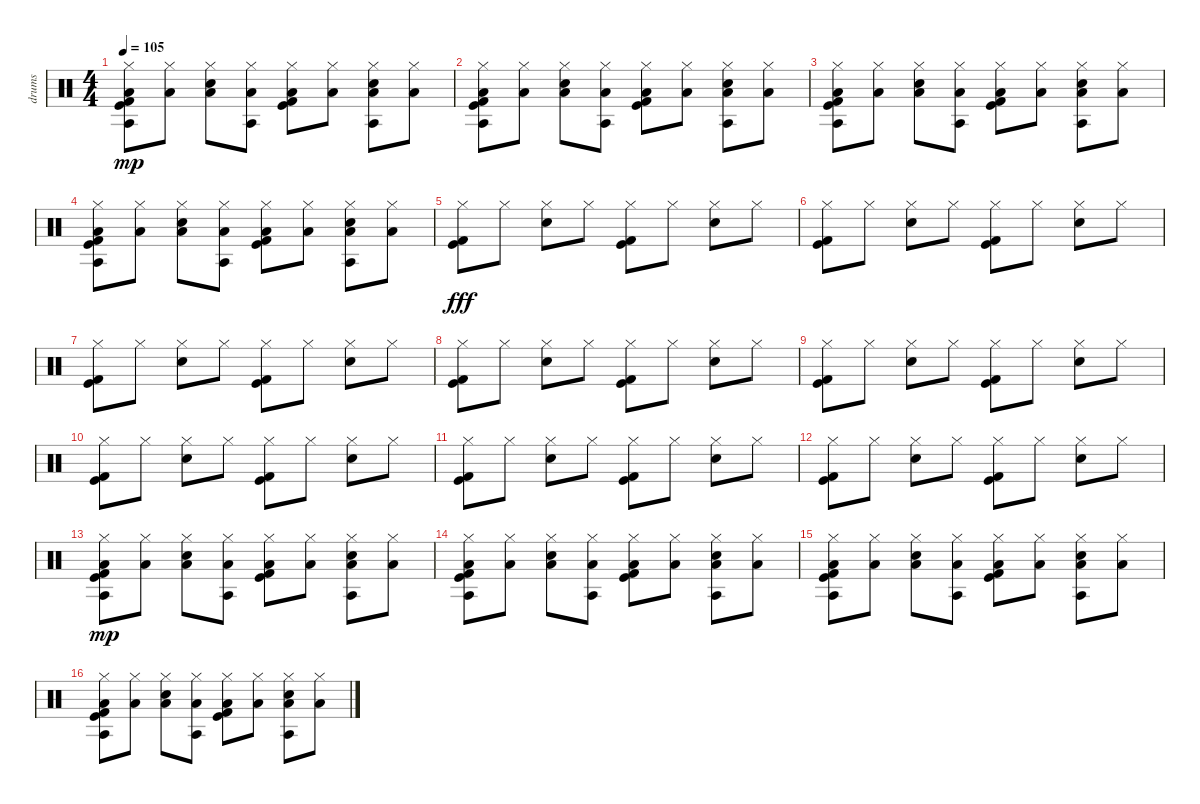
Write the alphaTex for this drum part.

\track ("drums" "drums") {instrument percussion}
\staff {score}
\articulation defaults
\ts (4 4)
\tempo 105
\clef neutral
\ks c
("Kick (hit)" "Kick (hit) 2" "Hi-Hat (closed)" "Agogo tow (hit)" "Low Floor Tom (hit)").8{dy mp} ("Hi-Hat (closed)" "Low Floor Tom (hit)").8 ("Hi-Hat (closed)" "Electric Snare (hit)" "Low Floor Tom (hit)").8 ("Hi-Hat (closed)" "Agogo tow (hit)" "Low Floor Tom (hit)").8 ("Kick (hit)" "Kick (hit) 2" "Hi-Hat (closed)" "Low Floor Tom (hit)").8 ("Hi-Hat (closed)" "Low Floor Tom (hit)").8 ("Hi-Hat (closed)" "Agogo tow (hit)" "Electric Snare (hit)" "Low Floor Tom (hit)").8 ("Hi-Hat (closed)" "Low Floor Tom (hit)").8 |
("Kick (hit)" "Kick (hit) 2" "Hi-Hat (closed)" "Agogo tow (hit)" "Low Floor Tom (hit)").8 ("Hi-Hat (closed)" "Low Floor Tom (hit)").8 ("Hi-Hat (closed)" "Electric Snare (hit)" "Low Floor Tom (hit)").8 ("Hi-Hat (closed)" "Agogo tow (hit)" "Low Floor Tom (hit)").8 ("Kick (hit)" "Kick (hit) 2" "Hi-Hat (closed)" "Low Floor Tom (hit)").8 ("Hi-Hat (closed)" "Low Floor Tom (hit)").8 ("Hi-Hat (closed)" "Agogo tow (hit)" "Electric Snare (hit)" "Low Floor Tom (hit)").8 ("Hi-Hat (closed)" "Low Floor Tom (hit)").8 |
("Kick (hit)" "Kick (hit) 2" "Hi-Hat (closed)" "Agogo tow (hit)" "Low Floor Tom (hit)").8 ("Hi-Hat (closed)" "Low Floor Tom (hit)").8 ("Hi-Hat (closed)" "Electric Snare (hit)" "Low Floor Tom (hit)").8 ("Hi-Hat (closed)" "Agogo tow (hit)" "Low Floor Tom (hit)").8 ("Kick (hit)" "Kick (hit) 2" "Hi-Hat (closed)" "Low Floor Tom (hit)").8 ("Hi-Hat (closed)" "Low Floor Tom (hit)").8 ("Hi-Hat (closed)" "Agogo tow (hit)" "Electric Snare (hit)" "Low Floor Tom (hit)").8 ("Hi-Hat (closed)" "Low Floor Tom (hit)").8 |
("Kick (hit)" "Kick (hit) 2" "Hi-Hat (closed)" "Agogo tow (hit)" "Low Floor Tom (hit)").8 ("Hi-Hat (closed)" "Low Floor Tom (hit)").8 ("Hi-Hat (closed)" "Electric Snare (hit)" "Low Floor Tom (hit)").8 ("Hi-Hat (closed)" "Agogo tow (hit)" "Low Floor Tom (hit)").8 ("Kick (hit)" "Kick (hit) 2" "Hi-Hat (closed)" "Low Floor Tom (hit)").8 ("Hi-Hat (closed)" "Low Floor Tom (hit)").8 ("Hi-Hat (closed)" "Agogo tow (hit)" "Electric Snare (hit)" "Low Floor Tom (hit)").8 ("Hi-Hat (closed)" "Low Floor Tom (hit)").8 |
("Kick (hit)" "Kick (hit) 2" "Hi-Hat (closed)").8{dy fff} "Hi-Hat (closed)".8 ("Hi-Hat (closed)" "Electric Snare (hit)").8 "Hi-Hat (closed)".8 ("Kick (hit)" "Kick (hit) 2" "Hi-Hat (closed)").8 "Hi-Hat (closed)".8 ("Hi-Hat (closed)" "Electric Snare (hit)").8 "Hi-Hat (closed)".8 |
("Kick (hit)" "Kick (hit) 2" "Hi-Hat (closed)").8 "Hi-Hat (closed)".8 ("Hi-Hat (closed)" "Electric Snare (hit)").8 "Hi-Hat (closed)".8 ("Kick (hit)" "Kick (hit) 2" "Hi-Hat (closed)").8 "Hi-Hat (closed)".8 ("Hi-Hat (closed)" "Electric Snare (hit)").8 "Hi-Hat (closed)".8 |
("Kick (hit)" "Kick (hit) 2" "Hi-Hat (closed)").8 "Hi-Hat (closed)".8 ("Hi-Hat (closed)" "Electric Snare (hit)").8 "Hi-Hat (closed)".8 ("Kick (hit)" "Kick (hit) 2" "Hi-Hat (closed)").8 "Hi-Hat (closed)".8 ("Hi-Hat (closed)" "Electric Snare (hit)").8 "Hi-Hat (closed)".8 |
("Kick (hit)" "Kick (hit) 2" "Hi-Hat (closed)").8 "Hi-Hat (closed)".8 ("Hi-Hat (closed)" "Electric Snare (hit)").8 "Hi-Hat (closed)".8 ("Kick (hit)" "Kick (hit) 2" "Hi-Hat (closed)").8 "Hi-Hat (closed)".8 ("Hi-Hat (closed)" "Electric Snare (hit)").8 "Hi-Hat (closed)".8 |
("Kick (hit)" "Kick (hit) 2" "Hi-Hat (closed)").8 "Hi-Hat (closed)".8 ("Hi-Hat (closed)" "Electric Snare (hit)").8 "Hi-Hat (closed)".8 ("Kick (hit)" "Kick (hit) 2" "Hi-Hat (closed)").8 "Hi-Hat (closed)".8 ("Hi-Hat (closed)" "Electric Snare (hit)").8 "Hi-Hat (closed)".8 |
("Kick (hit)" "Kick (hit) 2" "Hi-Hat (closed)").8 "Hi-Hat (closed)".8 ("Hi-Hat (closed)" "Electric Snare (hit)").8 "Hi-Hat (closed)".8 ("Kick (hit)" "Kick (hit) 2" "Hi-Hat (closed)").8 "Hi-Hat (closed)".8 ("Hi-Hat (closed)" "Electric Snare (hit)").8 "Hi-Hat (closed)".8 |
("Kick (hit)" "Kick (hit) 2" "Hi-Hat (closed)").8 "Hi-Hat (closed)".8 ("Hi-Hat (closed)" "Electric Snare (hit)").8 "Hi-Hat (closed)".8 ("Kick (hit)" "Kick (hit) 2" "Hi-Hat (closed)").8 "Hi-Hat (closed)".8 ("Hi-Hat (closed)" "Electric Snare (hit)").8 "Hi-Hat (closed)".8 |
("Kick (hit)" "Kick (hit) 2" "Hi-Hat (closed)").8 "Hi-Hat (closed)".8 ("Hi-Hat (closed)" "Electric Snare (hit)").8 "Hi-Hat (closed)".8 ("Kick (hit)" "Kick (hit) 2" "Hi-Hat (closed)").8 "Hi-Hat (closed)".8 ("Hi-Hat (closed)" "Electric Snare (hit)").8 "Hi-Hat (closed)".8 |
("Kick (hit)" "Kick (hit) 2" "Agogo tow (hit)" "Hi-Hat (closed)" "Low Floor Tom (hit)").8{dy mp} ("Hi-Hat (closed)" "Low Floor Tom (hit)").8 ("Hi-Hat (closed)" "Electric Snare (hit)" "Low Floor Tom (hit)").8 ("Agogo tow (hit)" "Hi-Hat (closed)" "Low Floor Tom (hit)").8 ("Kick (hit)" "Kick (hit) 2" "Hi-Hat (closed)" "Low Floor Tom (hit)").8 ("Hi-Hat (closed)" "Low Floor Tom (hit)").8 ("Agogo tow (hit)" "Hi-Hat (closed)" "Electric Snare (hit)" "Low Floor Tom (hit)").8 ("Hi-Hat (closed)" "Low Floor Tom (hit)").8 |
("Kick (hit)" "Kick (hit) 2" "Agogo tow (hit)" "Hi-Hat (closed)" "Low Floor Tom (hit)").8 ("Hi-Hat (closed)" "Low Floor Tom (hit)").8 ("Hi-Hat (closed)" "Electric Snare (hit)" "Low Floor Tom (hit)").8 ("Agogo tow (hit)" "Hi-Hat (closed)" "Low Floor Tom (hit)").8 ("Kick (hit)" "Kick (hit) 2" "Hi-Hat (closed)" "Low Floor Tom (hit)").8 ("Hi-Hat (closed)" "Low Floor Tom (hit)").8 ("Agogo tow (hit)" "Hi-Hat (closed)" "Electric Snare (hit)" "Low Floor Tom (hit)").8 ("Hi-Hat (closed)" "Low Floor Tom (hit)").8 |
("Kick (hit)" "Kick (hit) 2" "Hi-Hat (closed)" "Agogo tow (hit)" "Low Floor Tom (hit)").8 ("Hi-Hat (closed)" "Low Floor Tom (hit)").8 ("Hi-Hat (closed)" "Electric Snare (hit)" "Low Floor Tom (hit)").8 ("Hi-Hat (closed)" "Agogo tow (hit)" "Low Floor Tom (hit)").8 ("Kick (hit)" "Kick (hit) 2" "Hi-Hat (closed)" "Low Floor Tom (hit)").8 ("Hi-Hat (closed)" "Low Floor Tom (hit)").8 ("Hi-Hat (closed)" "Agogo tow (hit)" "Electric Snare (hit)" "Low Floor Tom (hit)").8 ("Hi-Hat (closed)" "Low Floor Tom (hit)").8 |
("Kick (hit)" "Kick (hit) 2" "Agogo tow (hit)" "Hi-Hat (closed)" "Low Floor Tom (hit)").8 ("Hi-Hat (closed)" "Low Floor Tom (hit)").8 ("Hi-Hat (closed)" "Electric Snare (hit)" "Low Floor Tom (hit)").8 ("Agogo tow (hit)" "Hi-Hat (closed)" "Low Floor Tom (hit)").8 ("Kick (hit)" "Kick (hit) 2" "Hi-Hat (closed)" "Low Floor Tom (hit)").8 ("Hi-Hat (closed)" "Low Floor Tom (hit)").8 ("Agogo tow (hit)" "Hi-Hat (closed)" "Electric Snare (hit)" "Low Floor Tom (hit)").8 ("Hi-Hat (closed)" "Low Floor Tom (hit)").8
